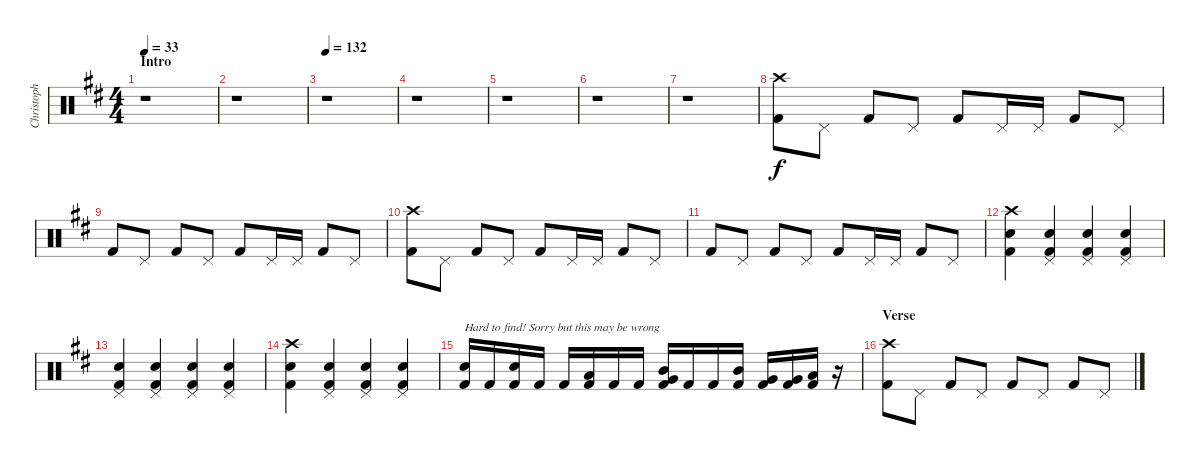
\track ("Christoph Doom Schneider - Drums" "Christoph ") {instrument percussion}
\staff {score}
\articulation defaults
\ts (4 4)
\section ("" "Intro")
\tempo 33
\tempo 100
\tempo 33
\clef neutral
\ks d
r.1{dy f} |
r.1 |
\tempo 132
r.1 |
r.1 |
r.1 |
r.1 |
r.1 |
("Crash high (hit)" "Kick (hit) 2").8 "Pedal Hi-Hat (hit)".8 "Kick (hit) 2".8 "Pedal Hi-Hat (hit)".8 "Kick (hit) 2".8 "Pedal Hi-Hat (hit)".16 "Pedal Hi-Hat (hit)".16 "Kick (hit) 2".8 "Pedal Hi-Hat (hit)".8 |
"Kick (hit) 2".8 "Pedal Hi-Hat (hit)".8 "Kick (hit) 2".8 "Pedal Hi-Hat (hit)".8 "Kick (hit) 2".8 "Pedal Hi-Hat (hit)".16 "Pedal Hi-Hat (hit)".16 "Kick (hit) 2".8 "Pedal Hi-Hat (hit)".8 |
("Crash high (hit)" "Kick (hit) 2").8 "Pedal Hi-Hat (hit)".8 "Kick (hit) 2".8 "Pedal Hi-Hat (hit)".8 "Kick (hit) 2".8 "Pedal Hi-Hat (hit)".16 "Pedal Hi-Hat (hit)".16 "Kick (hit) 2".8 "Pedal Hi-Hat (hit)".8 |
"Kick (hit) 2".8 "Pedal Hi-Hat (hit)".8 "Kick (hit) 2".8 "Pedal Hi-Hat (hit)".8 "Kick (hit) 2".8 "Pedal Hi-Hat (hit)".16 "Pedal Hi-Hat (hit)".16 "Kick (hit) 2".8 "Pedal Hi-Hat (hit)".8 |
("Crash high (hit)" "Snare (hit) 2" "Kick (hit) 2").4 ("Pedal Hi-Hat (hit)" "Snare (hit) 2" "Kick (hit) 2").4 ("Pedal Hi-Hat (hit)" "Snare (hit) 2" "Kick (hit) 2").4 ("Pedal Hi-Hat (hit)" "Snare (hit) 2" "Kick (hit) 2").4 |
("Pedal Hi-Hat (hit)" "Snare (hit) 2" "Kick (hit) 2").4 ("Pedal Hi-Hat (hit)" "Snare (hit) 2" "Kick (hit) 2").4 ("Pedal Hi-Hat (hit)" "Snare (hit) 2" "Kick (hit) 2").4 ("Pedal Hi-Hat (hit)" "Snare (hit) 2" "Kick (hit) 2").4 |
("Crash high (hit)" "Snare (hit) 2" "Kick (hit) 2").4 ("Pedal Hi-Hat (hit)" "Snare (hit) 2" "Kick (hit) 2").4 ("Pedal Hi-Hat (hit)" "Snare (hit) 2" "Kick (hit) 2").4 ("Pedal Hi-Hat (hit)" "Snare (hit) 2" "Kick (hit) 2").4 |
("Snare (hit) 2" "Kick (hit) 2").16{txt "Hard to find! Sorry but this may be wrong"} "Kick (hit) 2".16 ("Snare (hit) 2" "Kick (hit) 2").16 "Kick (hit) 2".16 "Kick (hit) 2".16 ("Low Tom (hit)" "Kick (hit) 2").16 "Kick (hit) 2".16 "Kick (hit) 2".16 ("Mid Tom (hit)" "Very Low Tom (hit)" "Kick (hit) 2").16 "Kick (hit) 2".16 "Kick (hit) 2".16 ("Mid Tom (hit)" "Kick (hit) 2").16 ("Very Low Tom (hit)" "Kick (hit) 2").16 ("Very Low Tom (hit)" "Kick (hit) 2").16 ("Low Floor Tom (hit)" "Kick (hit) 2").16 r.16 |
\section ("" "Verse")
("Crash high (hit)" "Kick (hit) 2").8 "Pedal Hi-Hat (hit)".8 "Kick (hit) 2".8 "Pedal Hi-Hat (hit)".8 "Kick (hit) 2".8 "Pedal Hi-Hat (hit)".8 "Kick (hit) 2".8 "Pedal Hi-Hat (hit)".8
